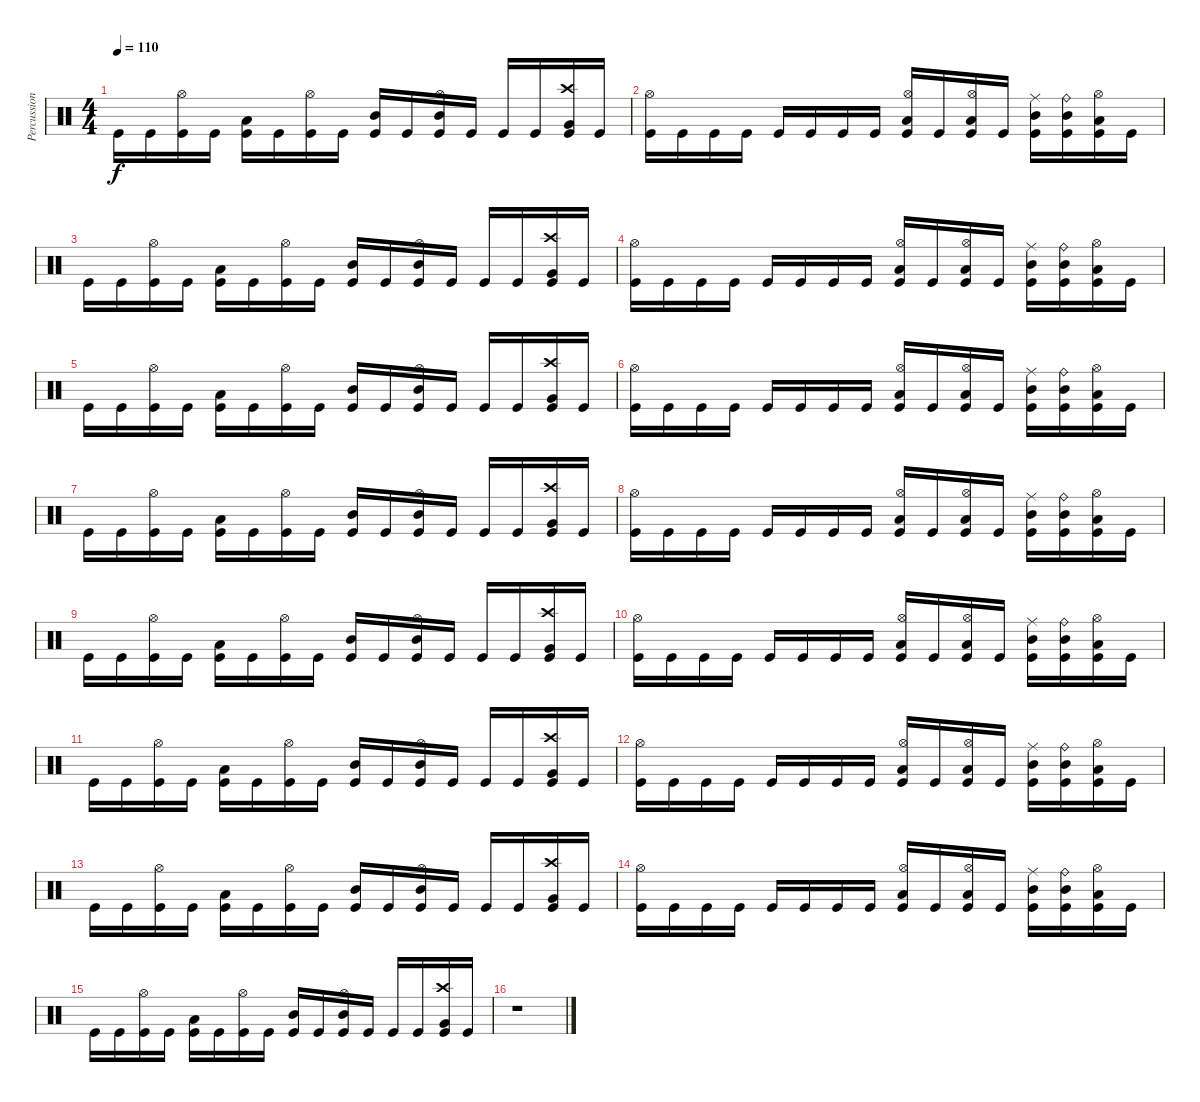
\track ("Percussion" "Percussion") {instrument percussion}
\staff {score}
\articulation defaults
\ts (4 4)
\tempo 110
\clef neutral
\ks c "Kick (hit)".16{dy f} "Kick (hit)".16
("Hi-Hat (open)" "Kick (hit)").16 "Kick (hit)".16 ("Low Tom (hit)" "Kick (hit)").16 "Kick (hit)".16 ("Hi-Hat (open)" "Kick (hit)").16 "Kick (hit)".16 ("Mid Tom (hit)" "Kick (hit)").16 "Kick (hit)".16 ("Hi-Hat (open)" "Mid Tom (hit)" "Kick (hit)").16 "Kick (hit)".16 "Kick (hit)".16 "Kick (hit)".16 ("Crash high (hit)" "Very Low Tom (hit)" "Kick (hit)").16 "Kick (hit)".16 |
("Hi-Hat (open)" "Kick (hit)").16 "Kick (hit)".16 "Kick (hit)".16 "Kick (hit)".16 "Kick (hit)".16 "Kick (hit)".16 "Kick (hit)".16 "Kick (hit)".16 ("Hi-Hat (open)" "Low Tom (hit)" "Kick (hit)").16 "Kick (hit)".16 ("Hi-Hat (open)" "Low Tom (hit)" "Kick (hit)").16 "Kick (hit)".16 ("Ride (middle)" "Mid Tom (hit)" "Kick (hit)").16 ("Ride (bell)" "Mid Tom (hit)" "Kick (hit)").16 ("Hi-Hat (open)" "Low Tom (hit)" "Kick (hit)").16 "Kick (hit)".16 |
"Kick (hit)".16 "Kick (hit)".16 ("Hi-Hat (open)" "Kick (hit)").16 "Kick (hit)".16 ("Low Tom (hit)" "Kick (hit)").16 "Kick (hit)".16 ("Hi-Hat (open)" "Kick (hit)").16 "Kick (hit)".16 ("Mid Tom (hit)" "Kick (hit)").16 "Kick (hit)".16 ("Hi-Hat (open)" "Mid Tom (hit)" "Kick (hit)").16 "Kick (hit)".16 "Kick (hit)".16 "Kick (hit)".16 ("Crash high (hit)" "Very Low Tom (hit)" "Kick (hit)").16 "Kick (hit)".16 |
("Hi-Hat (open)" "Kick (hit)").16 "Kick (hit)".16 "Kick (hit)".16 "Kick (hit)".16 "Kick (hit)".16 "Kick (hit)".16 "Kick (hit)".16 "Kick (hit)".16 ("Hi-Hat (open)" "Low Tom (hit)" "Kick (hit)").16 "Kick (hit)".16 ("Hi-Hat (open)" "Low Tom (hit)" "Kick (hit)").16 "Kick (hit)".16 ("Ride (middle)" "Mid Tom (hit)" "Kick (hit)").16 ("Ride (bell)" "Mid Tom (hit)" "Kick (hit)").16 ("Hi-Hat (open)" "Low Tom (hit)" "Kick (hit)").16 "Kick (hit)".16 |
"Kick (hit)".16 "Kick (hit)".16 ("Hi-Hat (open)" "Kick (hit)").16 "Kick (hit)".16 ("Low Tom (hit)" "Kick (hit)").16 "Kick (hit)".16 ("Hi-Hat (open)" "Kick (hit)").16 "Kick (hit)".16 ("Mid Tom (hit)" "Kick (hit)").16 "Kick (hit)".16 ("Hi-Hat (open)" "Mid Tom (hit)" "Kick (hit)").16 "Kick (hit)".16 "Kick (hit)".16 "Kick (hit)".16 ("Crash high (hit)" "Very Low Tom (hit)" "Kick (hit)").16 "Kick (hit)".16 |
("Hi-Hat (open)" "Kick (hit)").16 "Kick (hit)".16 "Kick (hit)".16 "Kick (hit)".16 "Kick (hit)".16 "Kick (hit)".16 "Kick (hit)".16 "Kick (hit)".16 ("Hi-Hat (open)" "Low Tom (hit)" "Kick (hit)").16 "Kick (hit)".16 ("Hi-Hat (open)" "Low Tom (hit)" "Kick (hit)").16 "Kick (hit)".16 ("Ride (middle)" "Mid Tom (hit)" "Kick (hit)").16 ("Ride (bell)" "Mid Tom (hit)" "Kick (hit)").16 ("Hi-Hat (open)" "Low Tom (hit)" "Kick (hit)").16 "Kick (hit)".16 |
"Kick (hit)".16 "Kick (hit)".16 ("Hi-Hat (open)" "Kick (hit)").16 "Kick (hit)".16 ("Low Tom (hit)" "Kick (hit)").16 "Kick (hit)".16 ("Hi-Hat (open)" "Kick (hit)").16 "Kick (hit)".16 ("Mid Tom (hit)" "Kick (hit)").16 "Kick (hit)".16 ("Hi-Hat (open)" "Mid Tom (hit)" "Kick (hit)").16 "Kick (hit)".16 "Kick (hit)".16 "Kick (hit)".16 ("Crash high (hit)" "Very Low Tom (hit)" "Kick (hit)").16 "Kick (hit)".16 |
("Hi-Hat (open)" "Kick (hit)").16 "Kick (hit)".16 "Kick (hit)".16 "Kick (hit)".16 "Kick (hit)".16 "Kick (hit)".16 "Kick (hit)".16 "Kick (hit)".16 ("Hi-Hat (open)" "Low Tom (hit)" "Kick (hit)").16 "Kick (hit)".16 ("Hi-Hat (open)" "Low Tom (hit)" "Kick (hit)").16 "Kick (hit)".16 ("Ride (middle)" "Mid Tom (hit)" "Kick (hit)").16 ("Ride (bell)" "Mid Tom (hit)" "Kick (hit)").16 ("Hi-Hat (open)" "Low Tom (hit)" "Kick (hit)").16 "Kick (hit)".16 |
"Kick (hit)".16 "Kick (hit)".16 ("Hi-Hat (open)" "Kick (hit)").16 "Kick (hit)".16 ("Low Tom (hit)" "Kick (hit)").16 "Kick (hit)".16 ("Hi-Hat (open)" "Kick (hit)").16 "Kick (hit)".16 ("Mid Tom (hit)" "Kick (hit)").16 "Kick (hit)".16 ("Hi-Hat (open)" "Mid Tom (hit)" "Kick (hit)").16 "Kick (hit)".16 "Kick (hit)".16 "Kick (hit)".16 ("Crash high (hit)" "Very Low Tom (hit)" "Kick (hit)").16 "Kick (hit)".16 |
("Hi-Hat (open)" "Kick (hit)").16 "Kick (hit)".16 "Kick (hit)".16 "Kick (hit)".16 "Kick (hit)".16 "Kick (hit)".16 "Kick (hit)".16 "Kick (hit)".16 ("Hi-Hat (open)" "Low Tom (hit)" "Kick (hit)").16 "Kick (hit)".16 ("Hi-Hat (open)" "Low Tom (hit)" "Kick (hit)").16 "Kick (hit)".16 ("Ride (middle)" "Mid Tom (hit)" "Kick (hit)").16 ("Ride (bell)" "Mid Tom (hit)" "Kick (hit)").16 ("Hi-Hat (open)" "Low Tom (hit)" "Kick (hit)").16 "Kick (hit)".16 |
"Kick (hit)".16 "Kick (hit)".16 ("Hi-Hat (open)" "Kick (hit)").16 "Kick (hit)".16 ("Low Tom (hit)" "Kick (hit)").16 "Kick (hit)".16 ("Hi-Hat (open)" "Kick (hit)").16 "Kick (hit)".16 ("Mid Tom (hit)" "Kick (hit)").16 "Kick (hit)".16 ("Hi-Hat (open)" "Mid Tom (hit)" "Kick (hit)").16 "Kick (hit)".16 "Kick (hit)".16 "Kick (hit)".16 ("Crash high (hit)" "Very Low Tom (hit)" "Kick (hit)").16 "Kick (hit)".16 |
("Hi-Hat (open)" "Kick (hit)").16 "Kick (hit)".16 "Kick (hit)".16 "Kick (hit)".16 "Kick (hit)".16 "Kick (hit)".16 "Kick (hit)".16 "Kick (hit)".16 ("Hi-Hat (open)" "Low Tom (hit)" "Kick (hit)").16 "Kick (hit)".16 ("Hi-Hat (open)" "Low Tom (hit)" "Kick (hit)").16 "Kick (hit)".16 ("Ride (middle)" "Mid Tom (hit)" "Kick (hit)").16 ("Ride (bell)" "Mid Tom (hit)" "Kick (hit)").16 ("Hi-Hat (open)" "Low Tom (hit)" "Kick (hit)").16 "Kick (hit)".16 |
"Kick (hit)".16 "Kick (hit)".16 ("Hi-Hat (open)" "Kick (hit)").16 "Kick (hit)".16 ("Low Tom (hit)" "Kick (hit)").16 "Kick (hit)".16 ("Hi-Hat (open)" "Kick (hit)").16 "Kick (hit)".16 ("Mid Tom (hit)" "Kick (hit)").16 "Kick (hit)".16 ("Hi-Hat (open)" "Mid Tom (hit)" "Kick (hit)").16 "Kick (hit)".16 "Kick (hit)".16 "Kick (hit)".16 ("Crash high (hit)" "Very Low Tom (hit)" "Kick (hit)").16 "Kick (hit)".16 |
("Hi-Hat (open)" "Kick (hit)").16 "Kick (hit)".16 "Kick (hit)".16 "Kick (hit)".16 "Kick (hit)".16 "Kick (hit)".16 "Kick (hit)".16 "Kick (hit)".16 ("Hi-Hat (open)" "Low Tom (hit)" "Kick (hit)").16 "Kick (hit)".16 ("Hi-Hat (open)" "Low Tom (hit)" "Kick (hit)").16 "Kick (hit)".16 ("Ride (middle)" "Mid Tom (hit)" "Kick (hit)").16 ("Ride (bell)" "Mid Tom (hit)" "Kick (hit)").16 ("Hi-Hat (open)" "Low Tom (hit)" "Kick (hit)").16 "Kick (hit)".16 |
"Kick (hit)".16 "Kick (hit)".16 ("Hi-Hat (open)" "Kick (hit)").16 "Kick (hit)".16 ("Low Tom (hit)" "Kick (hit)").16 "Kick (hit)".16 ("Hi-Hat (open)" "Kick (hit)").16 "Kick (hit)".16 ("Mid Tom (hit)" "Kick (hit)").16 "Kick (hit)".16 ("Hi-Hat (open)" "Mid Tom (hit)" "Kick (hit)").16 "Kick (hit)".16 "Kick (hit)".16 "Kick (hit)".16 ("Crash high (hit)" "Very Low Tom (hit)" "Kick (hit)").16 "Kick (hit)".16 |
r.1
